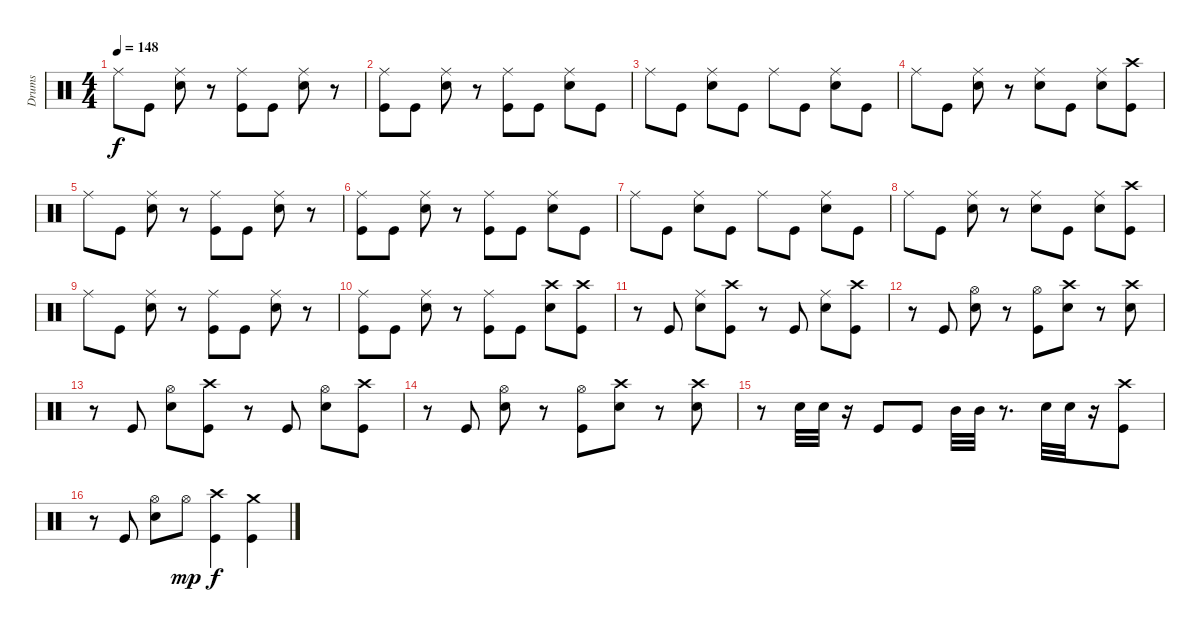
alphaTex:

\track ("Drums" "Drums") {instrument percussion}
\staff {score}
\articulation defaults
\ts (4 4)
\tempo 148
\clef neutral
\ks c "Ride (middle)".8{dy f} "Kick (hit)".8
("Ride (middle)" "Snare (hit) 2").8 r.8 ("Ride (middle)" "Kick (hit)").8 "Kick (hit)".8 ("Ride (middle)" "Snare (hit) 2").8 r.8 |
("Ride (middle)" "Kick (hit)").8 "Kick (hit)".8 ("Ride (middle)" "Snare (hit) 2").8 r.8 ("Ride (middle)" "Kick (hit)").8 "Kick (hit)".8 ("Ride (middle)" "Snare (hit) 2").8 "Kick (hit)".8 |
"Ride (middle)".8 "Kick (hit)".8 ("Ride (middle)" "Snare (hit) 2").8 "Kick (hit)".8 "Ride (middle)".8 "Kick (hit)".8 ("Ride (middle)" "Snare (hit) 2").8 "Kick (hit)".8 |
"Ride (middle)".8 "Kick (hit)".8 ("Ride (middle)" "Snare (hit) 2").8 r.8 ("Ride (middle)" "Snare (hit) 2").8 "Kick (hit)".8 ("Ride (middle)" "Snare (hit) 2").8 ("Crash high (hit)" "Kick (hit)").8 |
"Ride (middle)".8 "Kick (hit)".8 ("Ride (middle)" "Snare (hit) 2").8 r.8 ("Ride (middle)" "Kick (hit)").8 "Kick (hit)".8 ("Ride (middle)" "Snare (hit) 2").8 r.8 |
("Ride (middle)" "Kick (hit)").8 "Kick (hit)".8 ("Ride (middle)" "Snare (hit) 2").8 r.8 ("Ride (middle)" "Kick (hit)").8 "Kick (hit)".8 ("Ride (middle)" "Snare (hit) 2").8 "Kick (hit)".8 |
"Ride (middle)".8 "Kick (hit)".8 ("Ride (middle)" "Snare (hit) 2").8 "Kick (hit)".8 "Ride (middle)".8 "Kick (hit)".8 ("Ride (middle)" "Snare (hit) 2").8 "Kick (hit)".8 |
"Ride (middle)".8 "Kick (hit)".8 ("Ride (middle)" "Snare (hit) 2").8 r.8 ("Ride (middle)" "Snare (hit) 2").8 "Kick (hit)".8 ("Ride (middle)" "Snare (hit) 2").8 ("Crash high (hit)" "Kick (hit)").8 |
"Ride (middle)".8 "Kick (hit)".8 ("Ride (middle)" "Snare (hit) 2").8 r.8 ("Ride (middle)" "Kick (hit)").8 "Kick (hit)".8 ("Ride (middle)" "Snare (hit) 2").8 r.8 |
("Ride (middle)" "Kick (hit)").8 "Kick (hit)".8 ("Ride (middle)" "Snare (hit) 2").8 r.8 ("Ride (middle)" "Kick (hit)").8 "Kick (hit)".8 ("Crash high (hit)" "Snare (hit) 2").8 ("Crash high (hit)" "Kick (hit)").8 |
r.8 "Kick (hit)".8 ("Ride (middle)" "Snare (hit) 2").8 ("Crash high (hit)" "Kick (hit)").8 r.8 "Kick (hit)".8 ("Ride (middle)" "Snare (hit) 2").8 ("Crash high (hit)" "Kick (hit)").8 |
r.8 "Kick (hit)".8 ("Hi-Hat (open)" "Snare (hit) 2").8 r.8 ("Hi-Hat (open)" "Kick (hit)").8 ("Crash high (hit)" "Snare (hit) 2").8 r.8 ("Crash high (hit)" "Snare (hit) 2").8 |
r.8 "Kick (hit)".8 ("Hi-Hat (open)" "Snare (hit) 2").8 ("Crash high (hit)" "Kick (hit)").8 r.8 "Kick (hit)".8 ("Hi-Hat (open)" "Snare (hit) 2").8 ("Crash high (hit)" "Kick (hit)").8 |
r.8 "Kick (hit)".8 ("Hi-Hat (open)" "Snare (hit) 2").8 r.8 ("Hi-Hat (open)" "Kick (hit)").8 ("Crash high (hit)" "Snare (hit) 2").8 r.8 ("Crash high (hit)" "Snare (hit) 2").8 |
r.8 "Snare (hit) 2".32 "Snare (hit) 2".32 r.16 "Kick (hit)".8 "Kick (hit)".8 "Mid Tom (hit)".32 "Mid Tom (hit)".32 r.8{d} "Snare (hit) 2".32 "Snare (hit) 2".32 r.16 ("Crash high (hit)" "Kick (hit)").8 |
r.8 "Kick (hit)".8 ("Hi-Hat (open)" "Snare (hit) 2").8 "Hi-Hat (open)".8{dy mp} ("Crash high (hit)" "Kick (hit)").4{dy f} ("Crash medium (hit)" "Kick (hit)").4
